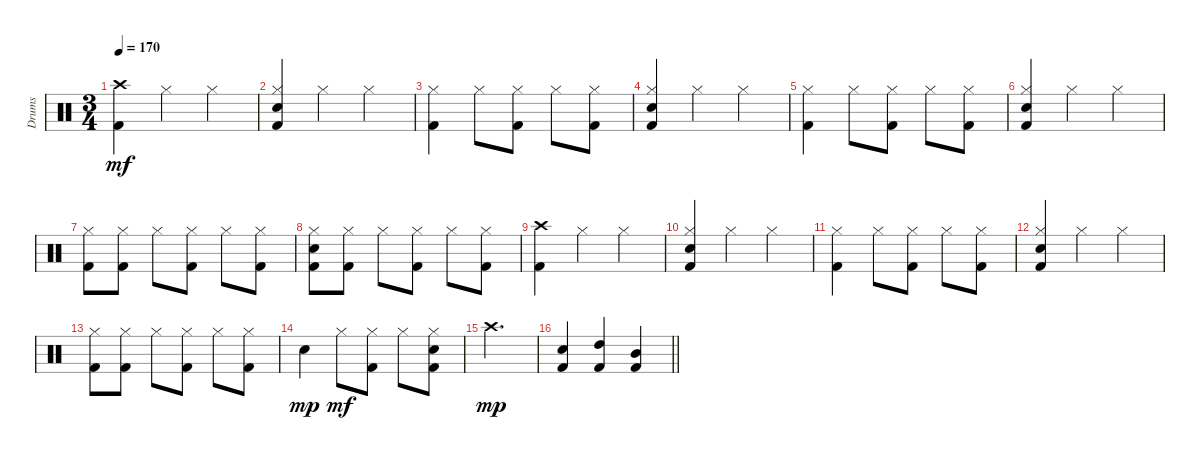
\track ("Drums" "Drums") {instrument percussion}
\staff {score}
\articulation defaults
\ts (3 4)
\tempo 170
\clef neutral
\ks c
("Crash high (hit)" "Kick (hit) 2").4{dy mf} "Hi-Hat (closed)".4 "Hi-Hat (closed)".4 |
("Hi-Hat (closed)" "Snare (hit) 2" "Kick (hit) 2").4 "Hi-Hat (closed)".4 "Hi-Hat (closed)".4 |
("Hi-Hat (closed)" "Kick (hit) 2").4 "Hi-Hat (closed)".8 ("Hi-Hat (closed)" "Kick (hit) 2").8 "Hi-Hat (closed)".8 ("Hi-Hat (closed)" "Kick (hit) 2").8 |
("Hi-Hat (closed)" "Snare (hit) 2" "Kick (hit) 2").4 "Hi-Hat (closed)".4 "Hi-Hat (closed)".4 |
("Hi-Hat (closed)" "Kick (hit) 2").4 "Hi-Hat (closed)".8 ("Hi-Hat (closed)" "Kick (hit) 2").8 "Hi-Hat (closed)".8 ("Hi-Hat (closed)" "Kick (hit) 2").8 |
("Hi-Hat (closed)" "Snare (hit) 2" "Kick (hit) 2").4 "Hi-Hat (closed)".4 "Hi-Hat (closed)".4 |
("Hi-Hat (closed)" "Kick (hit) 2").8 ("Hi-Hat (closed)" "Kick (hit) 2").8 "Hi-Hat (closed)".8 ("Hi-Hat (closed)" "Kick (hit) 2").8 "Hi-Hat (closed)".8 ("Hi-Hat (closed)" "Kick (hit) 2").8 |
("Hi-Hat (closed)" "Snare (hit) 2" "Kick (hit) 2").8 ("Hi-Hat (closed)" "Kick (hit) 2").8 "Hi-Hat (closed)".8 ("Hi-Hat (closed)" "Kick (hit) 2").8 "Hi-Hat (closed)".8 ("Hi-Hat (closed)" "Kick (hit) 2").8 |
("Crash high (hit)" "Kick (hit) 2").4 "Hi-Hat (closed)".4 "Hi-Hat (closed)".4 |
("Hi-Hat (closed)" "Snare (hit) 2" "Kick (hit) 2").4 "Hi-Hat (closed)".4 "Hi-Hat (closed)".4 |
("Hi-Hat (closed)" "Kick (hit) 2").4 "Hi-Hat (closed)".8 ("Hi-Hat (closed)" "Kick (hit) 2").8 "Hi-Hat (closed)".8 ("Hi-Hat (closed)" "Kick (hit) 2").8 |
("Hi-Hat (closed)" "Snare (hit) 2" "Kick (hit) 2").4 "Hi-Hat (closed)".4 "Hi-Hat (closed)".4 |
("Hi-Hat (closed)" "Kick (hit) 2").8 ("Hi-Hat (closed)" "Kick (hit) 2").8 "Hi-Hat (closed)".8 ("Hi-Hat (closed)" "Kick (hit) 2").8 "Hi-Hat (closed)".8 ("Hi-Hat (closed)" "Kick (hit) 2").8 |
"Snare (hit) 2".4{dy mp} "Hi-Hat (closed)".8{dy mf} ("Hi-Hat (closed)" "Kick (hit) 2").8 "Hi-Hat (closed)".8 ("Hi-Hat (closed)" "Snare (hit) 2" "Kick (hit) 2").8 |
"Crash high (hit)".2{d dy mp} |
\barLineRight lightlight
("Snare (hit) 2" "Kick (hit) 2").4 ("High Tom (hit)" "Kick (hit) 2").4 ("Mid Tom (hit)" "Kick (hit) 2").4
